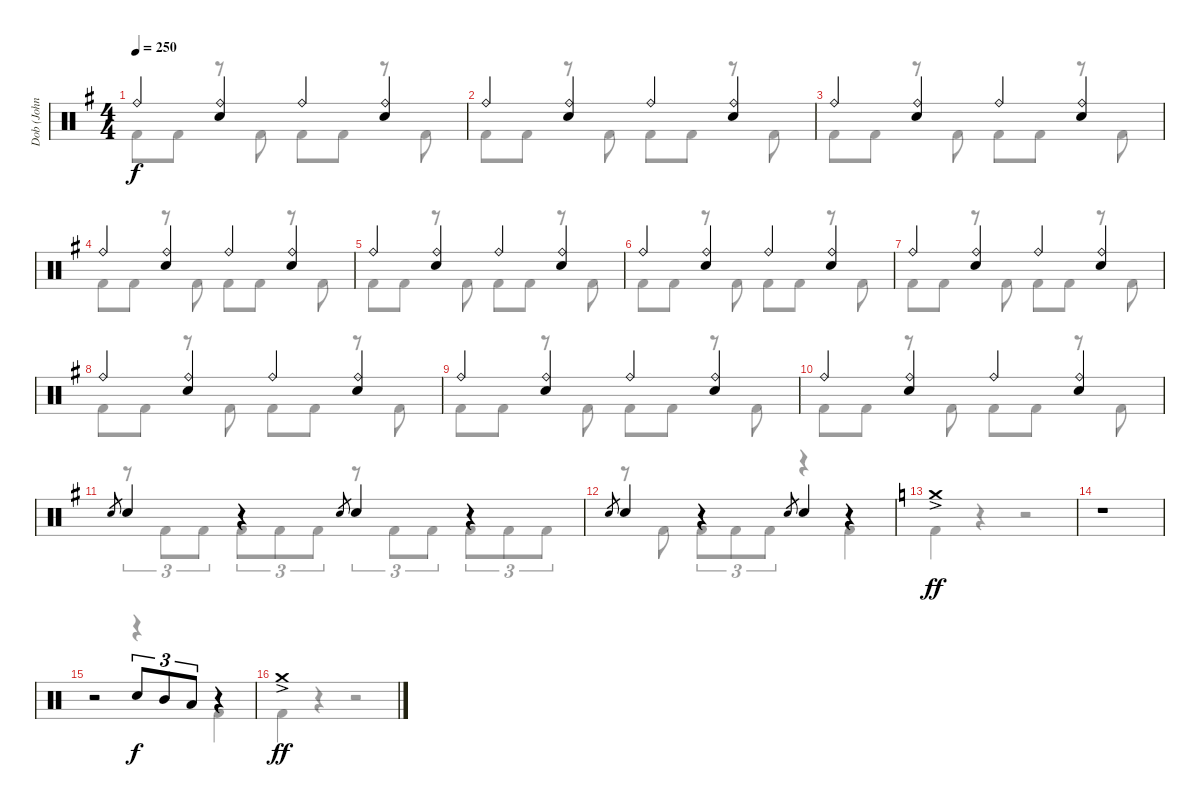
\track ("Dob (John Macaluso)" "Dob (John ") {instrument percussion}
\staff {score}
\articulation defaults
\voice
\ts (4 4)
\tempo 250
\clef neutral
\ks g "Ride (bell)".4{dy f}
("Ride (bell)" "Electric Snare (hit)").4 "Ride (bell)".4 ("Ride (bell)" "Electric Snare (hit)").4 |
"Ride (bell)".4 ("Ride (bell)" "Electric Snare (hit)").4 "Ride (bell)".4 ("Ride (bell)" "Electric Snare (hit)").4 |
"Ride (bell)".4 ("Ride (bell)" "Electric Snare (hit)").4 "Ride (bell)".4 ("Ride (bell)" "Electric Snare (hit)").4 |
"Ride (bell)".4 ("Ride (bell)" "Electric Snare (hit)").4 "Ride (bell)".4 ("Ride (bell)" "Electric Snare (hit)").4 |
"Ride (bell)".4 ("Ride (bell)" "Electric Snare (hit)").4 "Ride (bell)".4 ("Ride (bell)" "Electric Snare (hit)").4 |
"Ride (bell)".4 ("Ride (bell)" "Electric Snare (hit)").4 "Ride (bell)".4 ("Ride (bell)" "Electric Snare (hit)").4 |
"Ride (bell)".4 ("Ride (bell)" "Electric Snare (hit)").4 "Ride (bell)".4 ("Ride (bell)" "Electric Snare (hit)").4 |
"Ride (bell)".4 ("Ride (bell)" "Electric Snare (hit)").4 "Ride (bell)".4 ("Ride (bell)" "Electric Snare (hit)").4 |
"Ride (bell)".4 ("Ride (bell)" "Electric Snare (hit)").4 "Ride (bell)".4 ("Ride (bell)" "Electric Snare (hit)").4 |
"Ride (bell)".4 ("Ride (bell)" "Electric Snare (hit)").4 "Ride (bell)".4 ("Ride (bell)" "Electric Snare (hit)").4 |
"Electric Snare (hit)".8{gr} "Electric Snare (hit)".4 r.4 "Electric Snare (hit)".8{gr} "Electric Snare (hit)".4 r.4 |
"Electric Snare (hit)".8{gr} "Electric Snare (hit)".4 r.4 "Electric Snare (hit)".8{gr} "Electric Snare (hit)".4 r.4 |
\ks c "Crash medium (hit)"{ac}.1{dy ff}
|
r.1 |
r.2 "Electric Snare (hit)".8{tu (3 2) dy f} "Mid Tom (hit)".8{tu (3 2)} "Low Tom (hit)".8{tu (3 2)} r.4 |
"Crash medium (hit)"{ac}.1{dy ff}
\voice
\clef neutral
\ottava regular
\simile none
\ks g "Kick (hit) 2".8{dy f} "Kick (hit) 2".8
r.8 "Kick (hit) 2".8 "Kick (hit) 2".8 "Kick (hit) 2".8 r.8 "Kick (hit) 2".8 |
"Kick (hit) 2".8 "Kick (hit) 2".8 r.8 "Kick (hit) 2".8 "Kick (hit) 2".8 "Kick (hit) 2".8 r.8 "Kick (hit) 2".8 |
"Kick (hit) 2".8 "Kick (hit) 2".8 r.8 "Kick (hit) 2".8 "Kick (hit) 2".8 "Kick (hit) 2".8 r.8 "Kick (hit) 2".8 |
"Kick (hit) 2".8 "Kick (hit) 2".8 r.8 "Kick (hit) 2".8 "Kick (hit) 2".8 "Kick (hit) 2".8 r.8 "Kick (hit) 2".8 |
"Kick (hit) 2".8 "Kick (hit) 2".8 r.8 "Kick (hit) 2".8 "Kick (hit) 2".8 "Kick (hit) 2".8 r.8 "Kick (hit) 2".8 |
"Kick (hit) 2".8 "Kick (hit) 2".8 r.8 "Kick (hit) 2".8 "Kick (hit) 2".8 "Kick (hit) 2".8 r.8 "Kick (hit) 2".8 |
"Kick (hit) 2".8 "Kick (hit) 2".8 r.8 "Kick (hit) 2".8 "Kick (hit) 2".8 "Kick (hit) 2".8 r.8 "Kick (hit) 2".8 |
"Kick (hit) 2".8 "Kick (hit) 2".8 r.8 "Kick (hit) 2".8 "Kick (hit) 2".8 "Kick (hit) 2".8 r.8 "Kick (hit) 2".8 |
"Kick (hit) 2".8 "Kick (hit) 2".8 r.8 "Kick (hit) 2".8 "Kick (hit) 2".8 "Kick (hit) 2".8 r.8 "Kick (hit) 2".8 |
"Kick (hit) 2".8 "Kick (hit) 2".8 r.8 "Kick (hit) 2".8 "Kick (hit) 2".8 "Kick (hit) 2".8 r.8 "Kick (hit) 2".8 |
r.8{tu (3 2)} "Kick (hit) 2".8{tu (3 2)} "Kick (hit) 2".8{tu (3 2)} "Kick (hit) 2".8{tu (3 2)} "Kick (hit) 2".8{tu (3 2)} "Kick (hit) 2".8{tu (3 2)} r.8{tu (3 2)} "Kick (hit) 2".8{tu (3 2)} "Kick (hit) 2".8{tu (3 2)} "Kick (hit) 2".8{tu (3 2)} "Kick (hit) 2".8{tu (3 2)} "Kick (hit) 2".8{tu (3 2)} |
r.8 "Kick (hit) 2".8 "Kick (hit) 2".8{tu (3 2)} "Kick (hit) 2".8{tu (3 2)} "Kick (hit) 2".8{tu (3 2)} r.4 "Kick (hit) 2".4 |
\ks c "Kick (hit) 2".4
r.4 r.2 |
r.1 |
r.2 r.4 "Kick (hit) 2".4 |
"Kick (hit) 2".4 r.4 r.2
